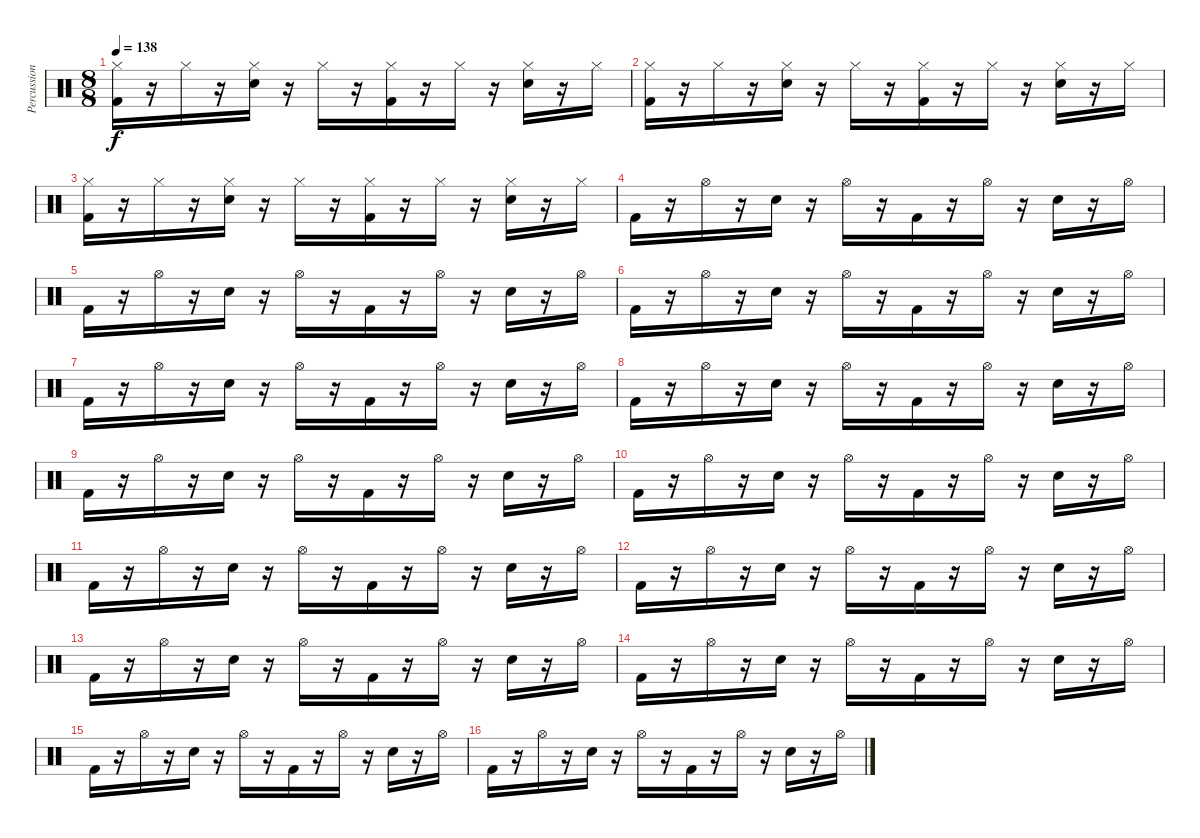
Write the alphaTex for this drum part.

\track ("Percussion" "Percussion") {instrument percussion}
\staff {score}
\articulation defaults
\ts (8 8)
\tempo 138
\clef neutral
\ks c
("Hi-Hat (closed)" "Kick (hit) 2").16{dy f} r.16 "Hi-Hat (closed)".16 r.16 ("Hi-Hat (closed)" "Electric Snare (hit)").16 r.16 "Hi-Hat (closed)".16 r.16 ("Hi-Hat (closed)" "Kick (hit) 2").16 r.16 "Hi-Hat (closed)".16 r.16 ("Hi-Hat (closed)" "Electric Snare (hit)").16 r.16 "Hi-Hat (closed)".16 |
("Hi-Hat (closed)" "Kick (hit) 2").16 r.16 "Hi-Hat (closed)".16 r.16 ("Hi-Hat (closed)" "Electric Snare (hit)").16 r.16 "Hi-Hat (closed)".16 r.16 ("Hi-Hat (closed)" "Kick (hit) 2").16 r.16 "Hi-Hat (closed)".16 r.16 ("Hi-Hat (closed)" "Electric Snare (hit)").16 r.16 "Hi-Hat (closed)".16 |
("Hi-Hat (closed)" "Kick (hit) 2").16 r.16 "Hi-Hat (closed)".16 r.16 ("Hi-Hat (closed)" "Electric Snare (hit)").16 r.16 "Hi-Hat (closed)".16 r.16 ("Hi-Hat (closed)" "Kick (hit) 2").16 r.16 "Hi-Hat (closed)".16 r.16 ("Hi-Hat (closed)" "Electric Snare (hit)").16 r.16 "Hi-Hat (closed)".16 |
"Kick (hit) 2".16 r.16 "Hi-Hat (open)".16 r.16 "Electric Snare (hit)".16 r.16 "Hi-Hat (open)".16 r.16 "Kick (hit) 2".16 r.16 "Hi-Hat (open)".16 r.16 "Electric Snare (hit)".16 r.16 "Hi-Hat (open)".16 |
"Kick (hit) 2".16 r.16 "Hi-Hat (open)".16 r.16 "Electric Snare (hit)".16 r.16 "Hi-Hat (open)".16 r.16 "Kick (hit) 2".16 r.16 "Hi-Hat (open)".16 r.16 "Electric Snare (hit)".16 r.16 "Hi-Hat (open)".16 |
"Kick (hit) 2".16 r.16 "Hi-Hat (open)".16 r.16 "Electric Snare (hit)".16 r.16 "Hi-Hat (open)".16 r.16 "Kick (hit) 2".16 r.16 "Hi-Hat (open)".16 r.16 "Electric Snare (hit)".16 r.16 "Hi-Hat (open)".16 |
"Kick (hit) 2".16 r.16 "Hi-Hat (open)".16 r.16 "Electric Snare (hit)".16 r.16 "Hi-Hat (open)".16 r.16 "Kick (hit) 2".16 r.16 "Hi-Hat (open)".16 r.16 "Electric Snare (hit)".16 r.16 "Hi-Hat (open)".16 |
"Kick (hit) 2".16 r.16 "Hi-Hat (open)".16 r.16 "Electric Snare (hit)".16 r.16 "Hi-Hat (open)".16 r.16 "Kick (hit) 2".16 r.16 "Hi-Hat (open)".16 r.16 "Electric Snare (hit)".16 r.16 "Hi-Hat (open)".16 |
"Kick (hit) 2".16 r.16 "Hi-Hat (open)".16 r.16 "Electric Snare (hit)".16 r.16 "Hi-Hat (open)".16 r.16 "Kick (hit) 2".16 r.16 "Hi-Hat (open)".16 r.16 "Electric Snare (hit)".16 r.16 "Hi-Hat (open)".16 |
"Kick (hit) 2".16 r.16 "Hi-Hat (open)".16 r.16 "Electric Snare (hit)".16 r.16 "Hi-Hat (open)".16 r.16 "Kick (hit) 2".16 r.16 "Hi-Hat (open)".16 r.16 "Electric Snare (hit)".16 r.16 "Hi-Hat (open)".16 |
"Kick (hit) 2".16 r.16 "Hi-Hat (open)".16 r.16 "Electric Snare (hit)".16 r.16 "Hi-Hat (open)".16 r.16 "Kick (hit) 2".16 r.16 "Hi-Hat (open)".16 r.16 "Electric Snare (hit)".16 r.16 "Hi-Hat (open)".16 |
"Kick (hit) 2".16 r.16 "Hi-Hat (open)".16 r.16 "Electric Snare (hit)".16 r.16 "Hi-Hat (open)".16 r.16 "Kick (hit) 2".16 r.16 "Hi-Hat (open)".16 r.16 "Electric Snare (hit)".16 r.16 "Hi-Hat (open)".16 |
"Kick (hit) 2".16 r.16 "Hi-Hat (open)".16 r.16 "Electric Snare (hit)".16 r.16 "Hi-Hat (open)".16 r.16 "Kick (hit) 2".16 r.16 "Hi-Hat (open)".16 r.16 "Electric Snare (hit)".16 r.16 "Hi-Hat (open)".16 |
"Kick (hit) 2".16 r.16 "Hi-Hat (open)".16 r.16 "Electric Snare (hit)".16 r.16 "Hi-Hat (open)".16 r.16 "Kick (hit) 2".16 r.16 "Hi-Hat (open)".16 r.16 "Electric Snare (hit)".16 r.16 "Hi-Hat (open)".16 |
"Kick (hit) 2".16 r.16 "Hi-Hat (open)".16 r.16 "Electric Snare (hit)".16 r.16 "Hi-Hat (open)".16 r.16 "Kick (hit) 2".16 r.16 "Hi-Hat (open)".16 r.16 "Electric Snare (hit)".16 r.16 "Hi-Hat (open)".16 |
"Kick (hit) 2".16 r.16 "Hi-Hat (open)".16 r.16 "Electric Snare (hit)".16 r.16 "Hi-Hat (open)".16 r.16 "Kick (hit) 2".16 r.16 "Hi-Hat (open)".16 r.16 "Electric Snare (hit)".16 r.16 "Hi-Hat (open)".16
